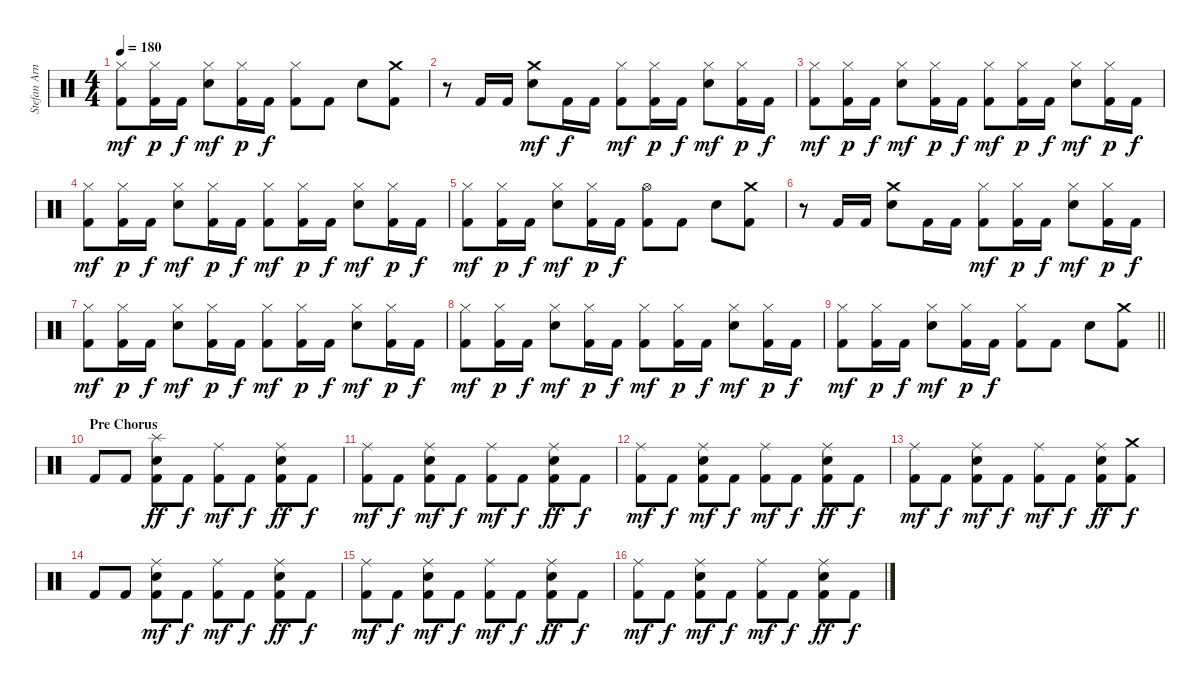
\track ("Stefan Arnold" "Stefan Arn") {instrument percussion}
\staff {score}
\articulation defaults
\ts (4 4)
\tempo 180
\clef neutral
\ks c
("Hi-Hat (closed)" "Kick (hit) 2").8{dy mf} ("Hi-Hat (closed)" "Kick (hit) 2").16{dy p} "Kick (hit) 2".16{dy f} ("Hi-Hat (closed)" "Electric Snare (hit)").8{dy mf} ("Hi-Hat (closed)" "Kick (hit) 2").16{dy p} "Kick (hit) 2".16{dy f} ("Hi-Hat (closed)" "Kick (hit) 2").8 "Kick (hit) 2".8 "Electric Snare (hit)".8 ("Crash medium (hit)" "Kick (hit) 2").8 |
r.8 "Kick (hit) 2".16 "Kick (hit) 2".16 ("Crash medium (hit)" "Electric Snare (hit)").8{dy mf} "Kick (hit) 2".16{dy f} "Kick (hit) 2".16 ("Hi-Hat (closed)" "Kick (hit) 2").8{dy mf} ("Hi-Hat (closed)" "Kick (hit) 2").16{dy p} "Kick (hit) 2".16{dy f} ("Hi-Hat (closed)" "Electric Snare (hit)").8{dy mf} ("Hi-Hat (closed)" "Kick (hit) 2").16{dy p} "Kick (hit) 2".16{dy f} |
("Hi-Hat (closed)" "Kick (hit) 2").8{dy mf} ("Hi-Hat (closed)" "Kick (hit) 2").16{dy p} "Kick (hit) 2".16{dy f} ("Hi-Hat (closed)" "Electric Snare (hit)").8{dy mf} ("Hi-Hat (closed)" "Kick (hit) 2").16{dy p} "Kick (hit) 2".16{dy f} ("Hi-Hat (closed)" "Kick (hit) 2").8{dy mf} ("Hi-Hat (closed)" "Kick (hit) 2").16{dy p} "Kick (hit) 2".16{dy f} ("Hi-Hat (closed)" "Electric Snare (hit)").8{dy mf} ("Hi-Hat (closed)" "Kick (hit) 2").16{dy p} "Kick (hit) 2".16{dy f} |
("Hi-Hat (closed)" "Kick (hit) 2").8{dy mf} ("Hi-Hat (closed)" "Kick (hit) 2").16{dy p} "Kick (hit) 2".16{dy f} ("Hi-Hat (closed)" "Electric Snare (hit)").8{dy mf} ("Hi-Hat (closed)" "Kick (hit) 2").16{dy p} "Kick (hit) 2".16{dy f} ("Hi-Hat (closed)" "Kick (hit) 2").8{dy mf} ("Hi-Hat (closed)" "Kick (hit) 2").16{dy p} "Kick (hit) 2".16{dy f} ("Hi-Hat (closed)" "Electric Snare (hit)").8{dy mf} ("Hi-Hat (closed)" "Kick (hit) 2").16{dy p} "Kick (hit) 2".16{dy f} |
("Hi-Hat (closed)" "Kick (hit) 2").8{dy mf} ("Hi-Hat (closed)" "Kick (hit) 2").16{dy p} "Kick (hit) 2".16{dy f} ("Hi-Hat (closed)" "Electric Snare (hit)").8{dy mf} ("Hi-Hat (closed)" "Kick (hit) 2").16{dy p} "Kick (hit) 2".16{dy f} ("Hi-Hat (open)" "Kick (hit) 2").8 "Kick (hit) 2".8 "Electric Snare (hit)".8 ("Crash medium (hit)" "Kick (hit) 2").8 |
r.8 "Kick (hit) 2".16 "Kick (hit) 2".16 ("Crash medium (hit)" "Electric Snare (hit)").8 "Kick (hit) 2".16 "Kick (hit) 2".16 ("Hi-Hat (closed)" "Kick (hit) 2").8{dy mf} ("Hi-Hat (closed)" "Kick (hit) 2").16{dy p} "Kick (hit) 2".16{dy f} ("Hi-Hat (closed)" "Electric Snare (hit)").8{dy mf} ("Hi-Hat (closed)" "Kick (hit) 2").16{dy p} "Kick (hit) 2".16{dy f} |
("Hi-Hat (closed)" "Kick (hit) 2").8{dy mf} ("Hi-Hat (closed)" "Kick (hit) 2").16{dy p} "Kick (hit) 2".16{dy f} ("Hi-Hat (closed)" "Electric Snare (hit)").8{dy mf} ("Hi-Hat (closed)" "Kick (hit) 2").16{dy p} "Kick (hit) 2".16{dy f} ("Hi-Hat (closed)" "Kick (hit) 2").8{dy mf} ("Hi-Hat (closed)" "Kick (hit) 2").16{dy p} "Kick (hit) 2".16{dy f} ("Hi-Hat (closed)" "Electric Snare (hit)").8{dy mf} ("Hi-Hat (closed)" "Kick (hit) 2").16{dy p} "Kick (hit) 2".16{dy f} |
("Hi-Hat (closed)" "Kick (hit) 2").8{dy mf} ("Hi-Hat (closed)" "Kick (hit) 2").16{dy p} "Kick (hit) 2".16{dy f} ("Hi-Hat (closed)" "Electric Snare (hit)").8{dy mf} ("Hi-Hat (closed)" "Kick (hit) 2").16{dy p} "Kick (hit) 2".16{dy f} ("Hi-Hat (closed)" "Kick (hit) 2").8{dy mf} ("Hi-Hat (closed)" "Kick (hit) 2").16{dy p} "Kick (hit) 2".16{dy f} ("Hi-Hat (closed)" "Electric Snare (hit)").8{dy mf} ("Hi-Hat (closed)" "Kick (hit) 2").16{dy p} "Kick (hit) 2".16{dy f} |
\barLineRight lightlight
("Hi-Hat (closed)" "Kick (hit) 2").8{dy mf} ("Hi-Hat (closed)" "Kick (hit) 2").16{dy p} "Kick (hit) 2".16{dy f} ("Hi-Hat (closed)" "Electric Snare (hit)").8{dy mf} ("Hi-Hat (closed)" "Kick (hit) 2").16{dy p} "Kick (hit) 2".16{dy f} ("Hi-Hat (closed)" "Kick (hit) 2").8 "Kick (hit) 2".8 "Electric Snare (hit)".8 ("Crash medium (hit)" "Kick (hit) 2").8 |
\section ("" "Pre Chorus")
"Kick (hit) 2".8 "Kick (hit) 2".8 ("Splash (hit)" "Electric Snare (hit)" "Kick (hit) 2").8{dy ff} "Kick (hit) 2".8{dy f} ("Ride (middle)" "Kick (hit) 2").8{dy mf} "Kick (hit) 2".8{dy f} ("Ride (middle)" "Electric Snare (hit)" "Kick (hit) 2").8{dy ff} "Kick (hit) 2".8{dy f} |
("Ride (middle)" "Kick (hit) 2").8{dy mf} "Kick (hit) 2".8{dy f} ("Ride (middle)" "Electric Snare (hit)" "Kick (hit) 2").8{dy mf} "Kick (hit) 2".8{dy f} ("Ride (middle)" "Kick (hit) 2").8{dy mf} "Kick (hit) 2".8{dy f} ("Ride (middle)" "Electric Snare (hit)" "Kick (hit) 2").8{dy ff} "Kick (hit) 2".8{dy f} |
("Ride (middle)" "Kick (hit) 2").8{dy mf} "Kick (hit) 2".8{dy f} ("Ride (middle)" "Electric Snare (hit)" "Kick (hit) 2").8{dy mf} "Kick (hit) 2".8{dy f} ("Ride (middle)" "Kick (hit) 2").8{dy mf} "Kick (hit) 2".8{dy f} ("Ride (middle)" "Electric Snare (hit)" "Kick (hit) 2").8{dy ff} "Kick (hit) 2".8{dy f} |
("Ride (middle)" "Kick (hit) 2").8{dy mf} "Kick (hit) 2".8{dy f} ("Ride (middle)" "Electric Snare (hit)" "Kick (hit) 2").8{dy mf} "Kick (hit) 2".8{dy f} ("Ride (middle)" "Kick (hit) 2").8{dy mf} "Kick (hit) 2".8{dy f} ("Ride (middle)" "Electric Snare (hit)" "Kick (hit) 2").8{dy ff} ("Crash medium (hit)" "Kick (hit) 2").8{dy f} |
"Kick (hit) 2".8 "Kick (hit) 2".8 ("Ride (middle)" "Electric Snare (hit)" "Kick (hit) 2").8{dy mf} "Kick (hit) 2".8{dy f} ("Ride (middle)" "Kick (hit) 2").8{dy mf} "Kick (hit) 2".8{dy f} ("Ride (middle)" "Electric Snare (hit)" "Kick (hit) 2").8{dy ff} "Kick (hit) 2".8{dy f} |
("Ride (middle)" "Kick (hit) 2").8{dy mf} "Kick (hit) 2".8{dy f} ("Ride (middle)" "Electric Snare (hit)" "Kick (hit) 2").8{dy mf} "Kick (hit) 2".8{dy f} ("Ride (middle)" "Kick (hit) 2").8{dy mf} "Kick (hit) 2".8{dy f} ("Ride (middle)" "Electric Snare (hit)" "Kick (hit) 2").8{dy ff} "Kick (hit) 2".8{dy f} |
("Ride (middle)" "Kick (hit) 2").8{dy mf} "Kick (hit) 2".8{dy f} ("Ride (middle)" "Electric Snare (hit)" "Kick (hit) 2").8{dy mf} "Kick (hit) 2".8{dy f} ("Ride (middle)" "Kick (hit) 2").8{dy mf} "Kick (hit) 2".8{dy f} ("Ride (middle)" "Electric Snare (hit)" "Kick (hit) 2").8{dy ff} "Kick (hit) 2".8{dy f}
